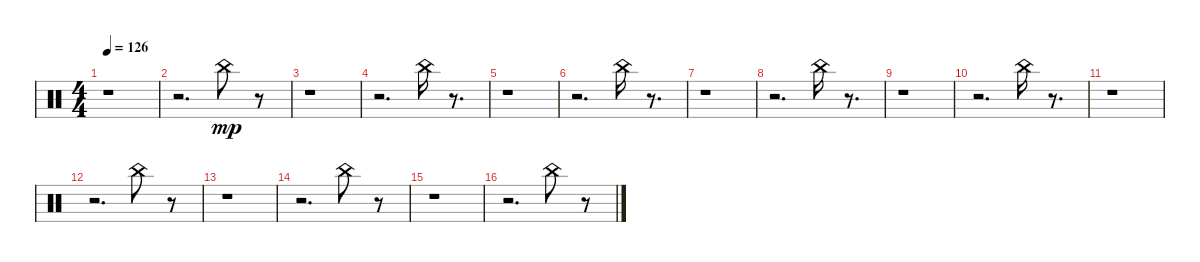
\track "" {instrument percussion}
\staff {score}
\articulation defaults
\ts (4 4)
\tempo 126
\clef neutral
\ks c
r.1{dy mp} |
r.2{d} "China (hit)".8 r.8 |
r.1 |
r.2{d} "China (hit)".16 r.8{d} |
r.1 |
r.2{d} "China (hit)".16 r.8{d} |
r.1 |
r.2{d} "China (hit)".16 r.8{d} |
r.1 |
r.2{d} "China (hit)".16 r.8{d} |
r.1 |
r.2{d} "China (hit)".8 r.8 |
r.1 |
r.2{d} "China (hit)".8 r.8 |
r.1 |
r.2{d} "China (hit)".8 r.8
